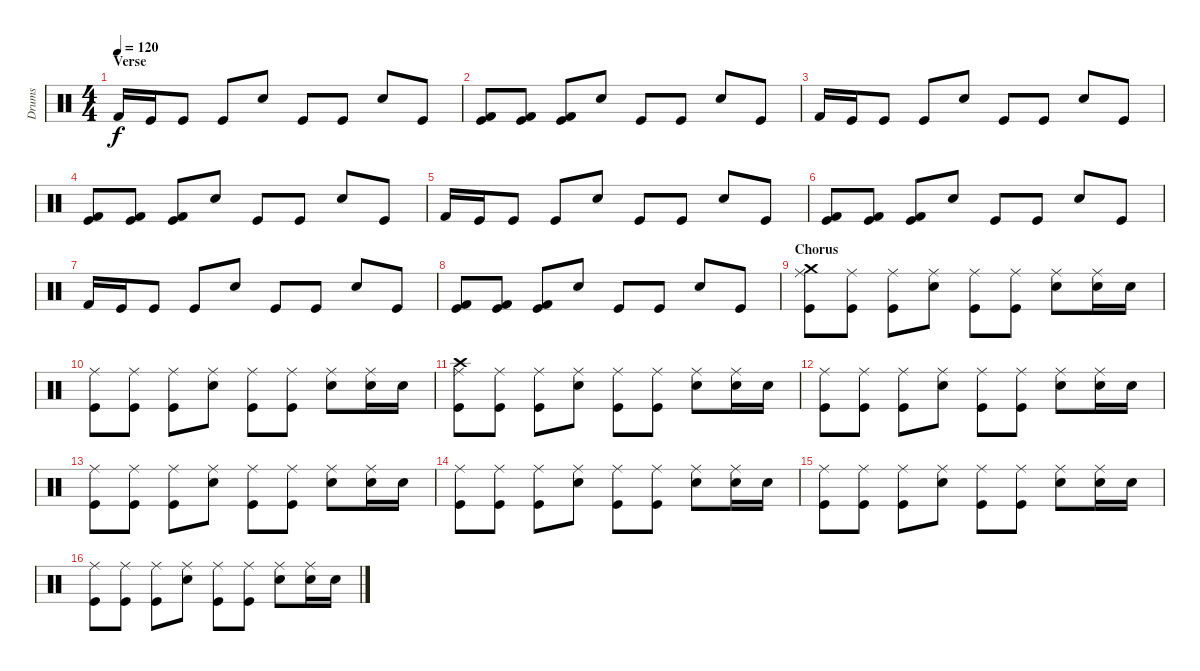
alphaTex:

\track ("Drums" "Drums") {instrument percussion}
\staff {score}
\articulation defaults
\ts (4 4)
\section ("" "Verse")
\tempo 120
\clef neutral
\ks c "Kick (hit) 2".16{dy f} "Kick (hit)".16 "Kick (hit)".8 "Kick (hit)".8 "Electric Snare (hit)".8 "Kick (hit)".8 "Kick (hit)".8 "Electric Snare (hit)".8 "Kick (hit)".8
|
("Kick (hit) 2" "Kick (hit)").8 ("Kick (hit) 2" "Kick (hit)").8 ("Kick (hit) 2" "Kick (hit)").8 "Electric Snare (hit)".8 "Kick (hit)".8 "Kick (hit)".8 "Electric Snare (hit)".8 "Kick (hit)".8 |
"Kick (hit) 2".16 "Kick (hit)".16 "Kick (hit)".8 "Kick (hit)".8 "Electric Snare (hit)".8 "Kick (hit)".8 "Kick (hit)".8 "Electric Snare (hit)".8 "Kick (hit)".8 |
("Kick (hit) 2" "Kick (hit)").8 ("Kick (hit) 2" "Kick (hit)").8 ("Kick (hit) 2" "Kick (hit)").8 "Electric Snare (hit)".8 "Kick (hit)".8 "Kick (hit)".8 "Electric Snare (hit)".8 "Kick (hit)".8 |
"Kick (hit) 2".16 "Kick (hit)".16 "Kick (hit)".8 "Kick (hit)".8 "Electric Snare (hit)".8 "Kick (hit)".8 "Kick (hit)".8 "Electric Snare (hit)".8 "Kick (hit)".8 |
("Kick (hit) 2" "Kick (hit)").8 ("Kick (hit) 2" "Kick (hit)").8 ("Kick (hit) 2" "Kick (hit)").8 "Electric Snare (hit)".8 "Kick (hit)".8 "Kick (hit)".8 "Electric Snare (hit)".8 "Kick (hit)".8 |
"Kick (hit) 2".16 "Kick (hit)".16 "Kick (hit)".8 "Kick (hit)".8 "Electric Snare (hit)".8 "Kick (hit)".8 "Kick (hit)".8 "Electric Snare (hit)".8 "Kick (hit)".8 |
("Kick (hit) 2" "Kick (hit)").8 ("Kick (hit) 2" "Kick (hit)").8 ("Kick (hit) 2" "Kick (hit)").8 "Electric Snare (hit)".8 "Kick (hit)".8 "Kick (hit)".8 "Electric Snare (hit)".8 "Kick (hit)".8 |
\section ("" "Chorus")
("Ride (middle)" "Crash medium (hit)" "Kick (hit)").8 ("Ride (middle)" "Kick (hit)").8 ("Ride (middle)" "Kick (hit)").8 ("Ride (middle)" "Electric Snare (hit)").8 ("Ride (middle)" "Kick (hit)").8 ("Ride (middle)" "Kick (hit)").8 ("Ride (middle)" "Electric Snare (hit)").8 ("Ride (middle)" "Electric Snare (hit)").16 "Electric Snare (hit)".16 |
("Ride (middle)" "Kick (hit)").8 ("Ride (middle)" "Kick (hit)").8 ("Ride (middle)" "Kick (hit)").8 ("Ride (middle)" "Electric Snare (hit)").8 ("Ride (middle)" "Kick (hit)").8 ("Ride (middle)" "Kick (hit)").8 ("Ride (middle)" "Electric Snare (hit)").8 ("Ride (middle)" "Electric Snare (hit)").16 "Electric Snare (hit)".16 |
("Ride (middle)" "Crash high (hit)" "Kick (hit)").8 ("Ride (middle)" "Kick (hit)").8 ("Ride (middle)" "Kick (hit)").8 ("Ride (middle)" "Electric Snare (hit)").8 ("Ride (middle)" "Kick (hit)").8 ("Ride (middle)" "Kick (hit)").8 ("Ride (middle)" "Electric Snare (hit)").8 ("Ride (middle)" "Electric Snare (hit)").16 "Electric Snare (hit)".16 |
("Ride (middle)" "Kick (hit)").8 ("Ride (middle)" "Kick (hit)").8 ("Ride (middle)" "Kick (hit)").8 ("Ride (middle)" "Electric Snare (hit)").8 ("Ride (middle)" "Kick (hit)").8 ("Ride (middle)" "Kick (hit)").8 ("Ride (middle)" "Electric Snare (hit)").8 ("Ride (middle)" "Electric Snare (hit)").16 "Electric Snare (hit)".16 |
("Ride (middle)" "Kick (hit)").8 ("Ride (middle)" "Kick (hit)").8 ("Ride (middle)" "Kick (hit)").8 ("Ride (middle)" "Electric Snare (hit)").8 ("Ride (middle)" "Kick (hit)").8 ("Ride (middle)" "Kick (hit)").8 ("Ride (middle)" "Electric Snare (hit)").8 ("Ride (middle)" "Electric Snare (hit)").16 "Electric Snare (hit)".16 |
("Ride (middle)" "Kick (hit)").8 ("Ride (middle)" "Kick (hit)").8 ("Ride (middle)" "Kick (hit)").8 ("Ride (middle)" "Electric Snare (hit)").8 ("Ride (middle)" "Kick (hit)").8 ("Ride (middle)" "Kick (hit)").8 ("Ride (middle)" "Electric Snare (hit)").8 ("Ride (middle)" "Electric Snare (hit)").16 "Electric Snare (hit)".16 |
("Ride (middle)" "Kick (hit)").8 ("Ride (middle)" "Kick (hit)").8 ("Ride (middle)" "Kick (hit)").8 ("Ride (middle)" "Electric Snare (hit)").8 ("Ride (middle)" "Kick (hit)").8 ("Ride (middle)" "Kick (hit)").8 ("Ride (middle)" "Electric Snare (hit)").8 ("Ride (middle)" "Electric Snare (hit)").16 "Electric Snare (hit)".16 |
("Ride (middle)" "Kick (hit)").8 ("Ride (middle)" "Kick (hit)").8 ("Ride (middle)" "Kick (hit)").8 ("Ride (middle)" "Electric Snare (hit)").8 ("Ride (middle)" "Kick (hit)").8 ("Ride (middle)" "Kick (hit)").8 ("Ride (middle)" "Electric Snare (hit)").8 ("Ride (middle)" "Electric Snare (hit)").16 "Electric Snare (hit)".16
